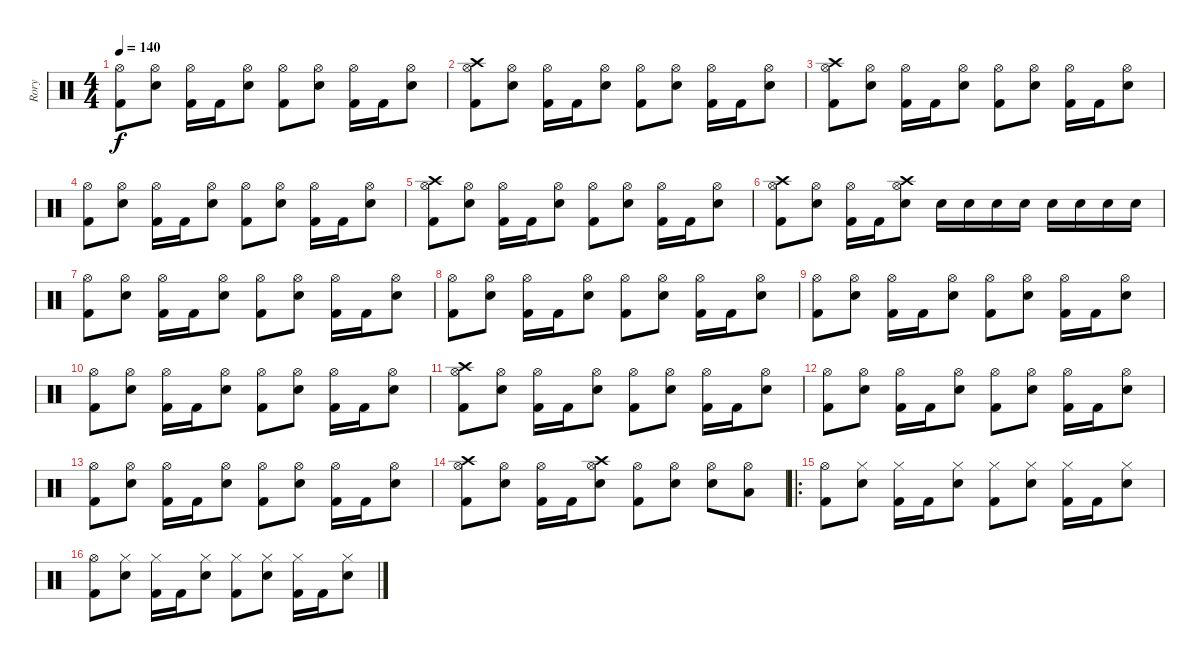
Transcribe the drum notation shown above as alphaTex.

\track ("Rory" "Rory") {instrument percussion}
\staff {score}
\articulation defaults
\ts (4 4)
\tempo 140
\clef neutral
\ks c
("Hi-Hat (open)" "Kick (hit) 2").8{dy f} ("Hi-Hat (open)" "Electric Snare (hit)").8 ("Hi-Hat (open)" "Kick (hit) 2").16 "Kick (hit) 2".16 ("Hi-Hat (open)" "Electric Snare (hit)").8 ("Hi-Hat (open)" "Kick (hit) 2").8 ("Hi-Hat (open)" "Electric Snare (hit)").8 ("Hi-Hat (open)" "Kick (hit) 2").16 "Kick (hit) 2".16 ("Hi-Hat (open)" "Electric Snare (hit)").8 |
("Crash high (hit)" "Hi-Hat (open)" "Kick (hit) 2").8 ("Hi-Hat (open)" "Electric Snare (hit)").8 ("Hi-Hat (open)" "Kick (hit) 2").16 "Kick (hit) 2".16 ("Hi-Hat (open)" "Electric Snare (hit)").8 ("Hi-Hat (open)" "Kick (hit) 2").8 ("Hi-Hat (open)" "Electric Snare (hit)").8 ("Hi-Hat (open)" "Kick (hit) 2").16 "Kick (hit) 2".16 ("Hi-Hat (open)" "Electric Snare (hit)").8 |
("Crash high (hit)" "Hi-Hat (open)" "Kick (hit) 2").8 ("Hi-Hat (open)" "Electric Snare (hit)").8 ("Hi-Hat (open)" "Kick (hit) 2").16 "Kick (hit) 2".16 ("Hi-Hat (open)" "Electric Snare (hit)").8 ("Hi-Hat (open)" "Kick (hit) 2").8 ("Hi-Hat (open)" "Electric Snare (hit)").8 ("Hi-Hat (open)" "Kick (hit) 2").16 "Kick (hit) 2".16 ("Hi-Hat (open)" "Electric Snare (hit)").8 |
("Hi-Hat (open)" "Kick (hit) 2").8 ("Hi-Hat (open)" "Electric Snare (hit)").8 ("Hi-Hat (open)" "Kick (hit) 2").16 "Kick (hit) 2".16 ("Hi-Hat (open)" "Electric Snare (hit)").8 ("Hi-Hat (open)" "Kick (hit) 2").8 ("Hi-Hat (open)" "Electric Snare (hit)").8 ("Hi-Hat (open)" "Kick (hit) 2").16 "Kick (hit) 2".16 ("Hi-Hat (open)" "Electric Snare (hit)").8 |
("Crash high (hit)" "Hi-Hat (open)" "Kick (hit) 2").8 ("Hi-Hat (open)" "Electric Snare (hit)").8 ("Hi-Hat (open)" "Kick (hit) 2").16 "Kick (hit) 2".16 ("Hi-Hat (open)" "Electric Snare (hit)").8 ("Hi-Hat (open)" "Kick (hit) 2").8 ("Hi-Hat (open)" "Electric Snare (hit)").8 ("Hi-Hat (open)" "Kick (hit) 2").16 "Kick (hit) 2".16 ("Hi-Hat (open)" "Electric Snare (hit)").8 |
("Crash high (hit)" "Hi-Hat (open)" "Kick (hit) 2").8 ("Hi-Hat (open)" "Electric Snare (hit)").8 ("Hi-Hat (open)" "Kick (hit) 2").16 "Kick (hit) 2".16 ("Crash high (hit)" "Hi-Hat (open)" "Electric Snare (hit)").8 "Electric Snare (hit)".16 "Electric Snare (hit)".16 "Electric Snare (hit)".16 "Electric Snare (hit)".16 "Electric Snare (hit)".16 "Electric Snare (hit)".16 "Electric Snare (hit)".16 "Electric Snare (hit)".16 |
("Hi-Hat (open)" "Kick (hit) 2").8 ("Hi-Hat (open)" "Electric Snare (hit)").8 ("Hi-Hat (open)" "Kick (hit) 2").16 "Kick (hit) 2".16 ("Hi-Hat (open)" "Electric Snare (hit)").8 ("Hi-Hat (open)" "Kick (hit) 2").8 ("Hi-Hat (open)" "Electric Snare (hit)").8 ("Hi-Hat (open)" "Kick (hit) 2").16 "Kick (hit) 2".16 ("Hi-Hat (open)" "Electric Snare (hit)").8 |
("Hi-Hat (open)" "Kick (hit) 2").8 ("Hi-Hat (open)" "Electric Snare (hit)").8 ("Hi-Hat (open)" "Kick (hit) 2").16 "Kick (hit) 2".16 ("Hi-Hat (open)" "Electric Snare (hit)").8 ("Hi-Hat (open)" "Kick (hit) 2").8 ("Hi-Hat (open)" "Electric Snare (hit)").8 ("Hi-Hat (open)" "Kick (hit) 2").16 "Kick (hit) 2".16 ("Hi-Hat (open)" "Electric Snare (hit)").8 |
("Hi-Hat (open)" "Kick (hit) 2").8 ("Hi-Hat (open)" "Electric Snare (hit)").8 ("Hi-Hat (open)" "Kick (hit) 2").16 "Kick (hit) 2".16 ("Hi-Hat (open)" "Electric Snare (hit)").8 ("Hi-Hat (open)" "Kick (hit) 2").8 ("Hi-Hat (open)" "Electric Snare (hit)").8 ("Hi-Hat (open)" "Kick (hit) 2").16 "Kick (hit) 2".16 ("Hi-Hat (open)" "Electric Snare (hit)").8 |
("Hi-Hat (open)" "Kick (hit) 2").8 ("Hi-Hat (open)" "Electric Snare (hit)").8 ("Hi-Hat (open)" "Kick (hit) 2").16 "Kick (hit) 2".16 ("Hi-Hat (open)" "Electric Snare (hit)").8 ("Hi-Hat (open)" "Kick (hit) 2").8 ("Hi-Hat (open)" "Electric Snare (hit)").8 ("Hi-Hat (open)" "Kick (hit) 2").16 "Kick (hit) 2".16 ("Hi-Hat (open)" "Electric Snare (hit)").8 |
("Crash high (hit)" "Hi-Hat (open)" "Kick (hit) 2").8 ("Hi-Hat (open)" "Electric Snare (hit)").8 ("Hi-Hat (open)" "Kick (hit) 2").16 "Kick (hit) 2".16 ("Hi-Hat (open)" "Electric Snare (hit)").8 ("Hi-Hat (open)" "Kick (hit) 2").8 ("Hi-Hat (open)" "Electric Snare (hit)").8 ("Hi-Hat (open)" "Kick (hit) 2").16 "Kick (hit) 2".16 ("Hi-Hat (open)" "Electric Snare (hit)").8 |
("Hi-Hat (open)" "Kick (hit) 2").8 ("Hi-Hat (open)" "Electric Snare (hit)").8 ("Hi-Hat (open)" "Kick (hit) 2").16 "Kick (hit) 2".16 ("Hi-Hat (open)" "Electric Snare (hit)").8 ("Hi-Hat (open)" "Kick (hit) 2").8 ("Hi-Hat (open)" "Electric Snare (hit)").8 ("Hi-Hat (open)" "Kick (hit) 2").16 "Kick (hit) 2".16 ("Hi-Hat (open)" "Electric Snare (hit)").8 |
("Hi-Hat (open)" "Kick (hit) 2").8 ("Hi-Hat (open)" "Electric Snare (hit)").8 ("Hi-Hat (open)" "Kick (hit) 2").16 "Kick (hit) 2".16 ("Hi-Hat (open)" "Electric Snare (hit)").8 ("Hi-Hat (open)" "Kick (hit) 2").8 ("Hi-Hat (open)" "Electric Snare (hit)").8 ("Hi-Hat (open)" "Kick (hit) 2").16 "Kick (hit) 2".16 ("Hi-Hat (open)" "Electric Snare (hit)").8 |
("Crash high (hit)" "Hi-Hat (open)" "Kick (hit) 2").8 ("Hi-Hat (open)" "Electric Snare (hit)").8 ("Hi-Hat (open)" "Kick (hit) 2").16 "Kick (hit) 2".16 ("Crash high (hit)" "Hi-Hat (open)" "Electric Snare (hit)").8 ("Hi-Hat (open)" "Kick (hit) 2").8 ("Hi-Hat (open)" "Electric Snare (hit)").8 ("Hi-Hat (open)" "Electric Snare (hit)").8 ("Hi-Hat (open)" "Low Tom (hit)").8 |
\ro
("Hi-Hat (open)" "Kick (hit) 2").8 ("Hi-Hat (closed)" "Electric Snare (hit)").8 ("Hi-Hat (closed)" "Kick (hit) 2").16 "Kick (hit) 2".16 ("Hi-Hat (closed)" "Electric Snare (hit)").8 ("Hi-Hat (closed)" "Kick (hit) 2").8 ("Hi-Hat (closed)" "Electric Snare (hit)").8 ("Hi-Hat (closed)" "Kick (hit) 2").16 "Kick (hit) 2".16 ("Hi-Hat (closed)" "Electric Snare (hit)").8 |
("Hi-Hat (open)" "Kick (hit) 2").8 ("Hi-Hat (closed)" "Electric Snare (hit)").8 ("Hi-Hat (closed)" "Kick (hit) 2").16 "Kick (hit) 2".16 ("Hi-Hat (closed)" "Electric Snare (hit)").8 ("Hi-Hat (closed)" "Kick (hit) 2").8 ("Hi-Hat (closed)" "Electric Snare (hit)").8 ("Hi-Hat (closed)" "Kick (hit) 2").16 "Kick (hit) 2".16 ("Hi-Hat (closed)" "Electric Snare (hit)").8
